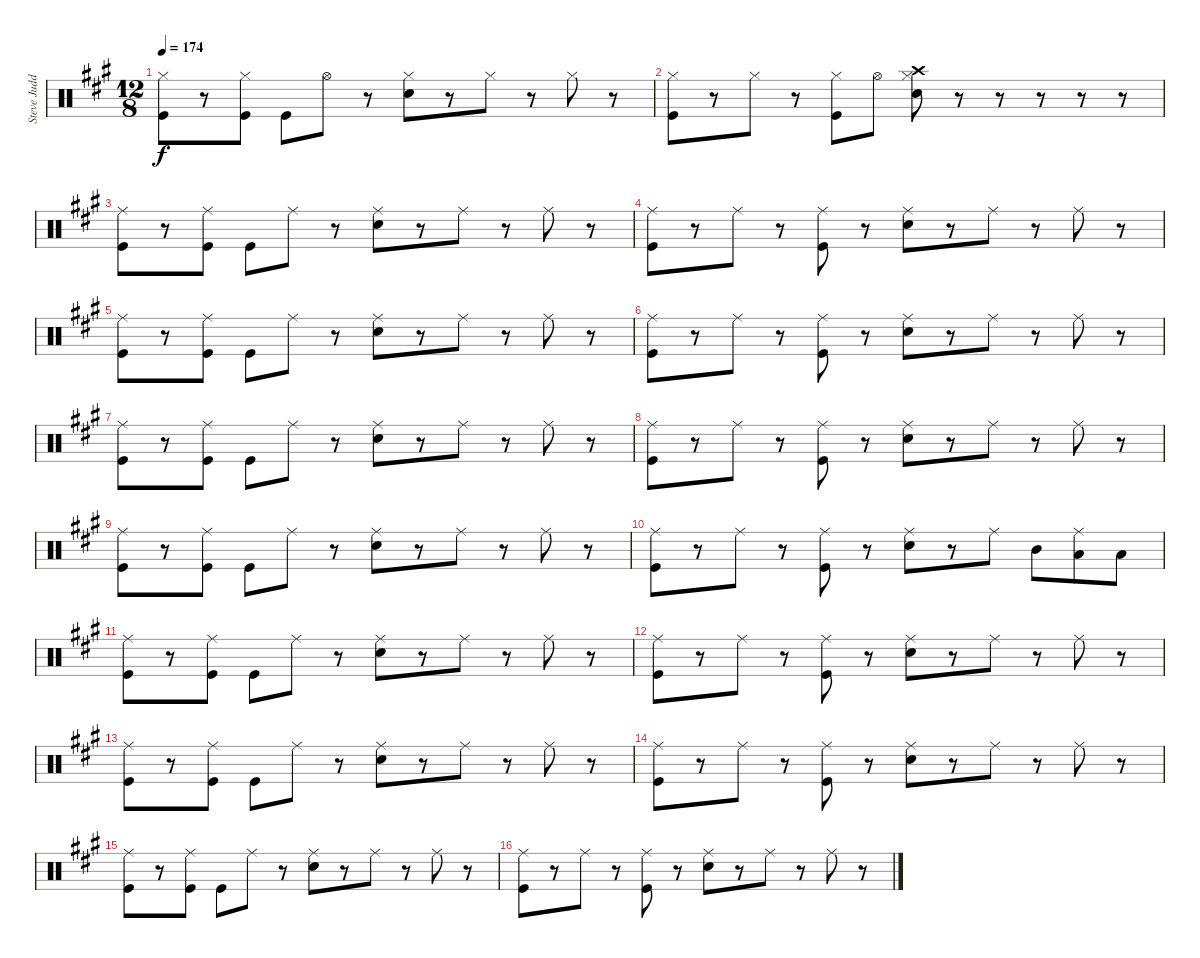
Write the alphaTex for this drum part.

\track ("Steve Judd (Drums)" "Steve Judd") {instrument percussion}
\staff {score}
\articulation defaults
\ts (12 8)
\tempo 174
\clef neutral
\ks a
("Hi-Hat (closed)" "Kick (hit)").8{dy f} r.8 ("Hi-Hat (closed)" "Kick (hit)").8 "Kick (hit)".8 "Hi-Hat (open)".8 r.8 ("Snare (hit) 2" "Hi-Hat (closed)").8 r.8 "Hi-Hat (closed)".8 r.8 "Hi-Hat (closed)".8 r.8 |
("Hi-Hat (closed)" "Kick (hit)").8 r.8 "Hi-Hat (closed)".8 r.8 ("Hi-Hat (closed)" "Kick (hit)").8 "Hi-Hat (open)".8 ("Crash high (hit)" "Snare (hit) 2" "Hi-Hat (closed)").8 r.8 r.8 r.8 r.8 r.8 |
("Ride (middle)" "Kick (hit)").8 r.8 ("Ride (middle)" "Kick (hit)").8 "Kick (hit)".8 "Ride (middle)".8 r.8 ("Snare (hit) 2" "Ride (middle)").8 r.8 "Ride (middle)".8 r.8 "Ride (middle)".8 r.8 |
("Ride (middle)" "Kick (hit)").8 r.8 "Ride (middle)".8 r.8 ("Ride (middle)" "Kick (hit)").8 r.8 ("Snare (hit) 2" "Ride (middle)").8 r.8 "Ride (middle)".8 r.8 "Ride (middle)".8 r.8 |
("Ride (middle)" "Kick (hit)").8 r.8 ("Ride (middle)" "Kick (hit)").8 "Kick (hit)".8 "Ride (middle)".8 r.8 ("Snare (hit) 2" "Ride (middle)").8 r.8 "Ride (middle)".8 r.8 "Ride (middle)".8 r.8 |
("Ride (middle)" "Kick (hit)").8 r.8 "Ride (middle)".8 r.8 ("Ride (middle)" "Kick (hit)").8 r.8 ("Snare (hit) 2" "Ride (middle)").8 r.8 "Ride (middle)".8 r.8 "Ride (middle)".8 r.8 |
("Ride (middle)" "Kick (hit)").8 r.8 ("Ride (middle)" "Kick (hit)").8 "Kick (hit)".8 "Ride (middle)".8 r.8 ("Snare (hit) 2" "Ride (middle)").8 r.8 "Ride (middle)".8 r.8 "Ride (middle)".8 r.8 |
("Ride (middle)" "Kick (hit)").8 r.8 "Ride (middle)".8 r.8 ("Ride (middle)" "Kick (hit)").8 r.8 ("Snare (hit) 2" "Ride (middle)").8 r.8 "Ride (middle)".8 r.8 "Ride (middle)".8 r.8 |
("Ride (middle)" "Kick (hit)").8 r.8 ("Ride (middle)" "Kick (hit)").8 "Kick (hit)".8 "Ride (middle)".8 r.8 ("Snare (hit) 2" "Ride (middle)").8 r.8 "Ride (middle)".8 r.8 "Ride (middle)".8 r.8 |
("Ride (middle)" "Kick (hit)").8 r.8 "Ride (middle)".8 r.8 ("Ride (middle)" "Kick (hit)").8 r.8 ("Snare (hit) 2" "Ride (middle)").8 r.8 "Ride (middle)".8 "Mid Tom (hit)".8 ("Low Tom (hit)" "Ride (middle)").8 "Low Floor Tom (hit)".8 |
("Ride (middle)" "Kick (hit)").8 r.8 ("Ride (middle)" "Kick (hit)").8 "Kick (hit)".8 "Ride (middle)".8 r.8 ("Snare (hit) 2" "Ride (middle)").8 r.8 "Ride (middle)".8 r.8 "Ride (middle)".8 r.8 |
("Ride (middle)" "Kick (hit)").8 r.8 "Ride (middle)".8 r.8 ("Ride (middle)" "Kick (hit)").8 r.8 ("Snare (hit) 2" "Ride (middle)").8 r.8 "Ride (middle)".8 r.8 "Ride (middle)".8 r.8 |
("Ride (middle)" "Kick (hit)").8 r.8 ("Ride (middle)" "Kick (hit)").8 "Kick (hit)".8 "Ride (middle)".8 r.8 ("Snare (hit) 2" "Ride (middle)").8 r.8 "Ride (middle)".8 r.8 "Ride (middle)".8 r.8 |
("Ride (middle)" "Kick (hit)").8 r.8 "Ride (middle)".8 r.8 ("Ride (middle)" "Kick (hit)").8 r.8 ("Snare (hit) 2" "Ride (middle)").8 r.8 "Ride (middle)".8 r.8 "Ride (middle)".8 r.8 |
("Ride (middle)" "Kick (hit)").8 r.8 ("Ride (middle)" "Kick (hit)").8 "Kick (hit)".8 "Ride (middle)".8 r.8 ("Snare (hit) 2" "Ride (middle)").8 r.8 "Ride (middle)".8 r.8 "Ride (middle)".8 r.8 |
("Ride (middle)" "Kick (hit)").8 r.8 "Ride (middle)".8 r.8 ("Ride (middle)" "Kick (hit)").8 r.8 ("Snare (hit) 2" "Ride (middle)").8 r.8 "Ride (middle)".8 r.8 "Ride (middle)".8 r.8
